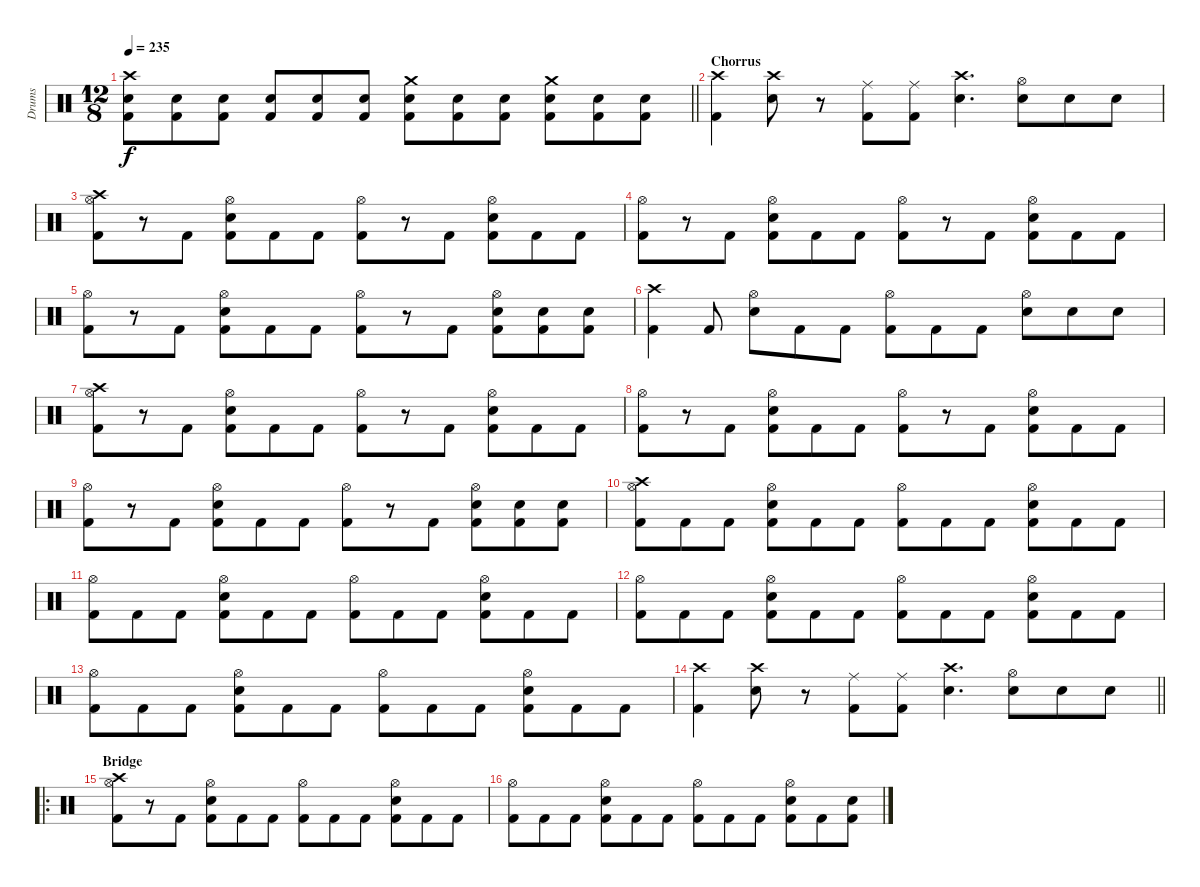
\track ("Drums" "Drums") {instrument percussion}
\staff {score}
\articulation defaults
\ts (12 8)
\tempo 235
\clef neutral
\barLineRight lightlight
\ks c
("Crash high (hit)" "Snare (hit) 2" "Kick (hit) 2").8{dy f} ("Snare (hit) 2" "Kick (hit) 2").8 ("Snare (hit) 2" "Kick (hit) 2").8 ("Snare (hit) 2" "Kick (hit) 2").8 ("Snare (hit) 2" "Kick (hit) 2").8 ("Snare (hit) 2" "Kick (hit) 2").8 ("Crash medium (hit)" "Snare (hit) 2" "Kick (hit) 2").8 ("Snare (hit) 2" "Kick (hit) 2").8 ("Snare (hit) 2" "Kick (hit) 2").8 ("Crash medium (hit)" "Snare (hit) 2" "Kick (hit) 2").8 ("Snare (hit) 2" "Kick (hit) 2").8 ("Snare (hit) 2" "Kick (hit) 2").8 |
\section ("" "Chorrus")
("Crash high (hit)" "Kick (hit) 2").4 ("Crash high (hit)" "Snare (hit) 2").8 r.8 ("Ride (middle)" "Kick (hit) 2").8 ("Ride (middle)" "Kick (hit) 2").8 ("Crash high (hit)" "Snare (hit) 2").4{d} ("Hi-Hat (open)" "Snare (hit) 2").8 "Snare (hit) 2".8 "Snare (hit) 2".8 |
("Crash high (hit)" "Hi-Hat (open)" "Kick (hit) 2").8 r.8 "Kick (hit) 2".8 ("Hi-Hat (open)" "Snare (hit) 2" "Kick (hit) 2").8 "Kick (hit) 2".8 "Kick (hit) 2".8 ("Hi-Hat (open)" "Kick (hit) 2").8 r.8 "Kick (hit) 2".8 ("Hi-Hat (open)" "Snare (hit) 2" "Kick (hit) 2").8 "Kick (hit) 2".8 "Kick (hit) 2".8 |
("Hi-Hat (open)" "Kick (hit) 2").8 r.8 "Kick (hit) 2".8 ("Hi-Hat (open)" "Snare (hit) 2" "Kick (hit) 2").8 "Kick (hit) 2".8 "Kick (hit) 2".8 ("Hi-Hat (open)" "Kick (hit) 2").8 r.8 "Kick (hit) 2".8 ("Hi-Hat (open)" "Snare (hit) 2" "Kick (hit) 2").8 "Kick (hit) 2".8 "Kick (hit) 2".8 |
("Hi-Hat (open)" "Kick (hit) 2").8 r.8 "Kick (hit) 2".8 ("Hi-Hat (open)" "Snare (hit) 2" "Kick (hit) 2").8 "Kick (hit) 2".8 "Kick (hit) 2".8 ("Hi-Hat (open)" "Kick (hit) 2").8 r.8 "Kick (hit) 2".8 ("Hi-Hat (open)" "Snare (hit) 2" "Kick (hit) 2").8 ("Snare (hit) 2" "Kick (hit) 2").8 ("Snare (hit) 2" "Kick (hit) 2").8 |
("Crash high (hit)" "Kick (hit) 2").4 "Kick (hit) 2".8 ("Hi-Hat (open)" "Snare (hit) 2").8 "Kick (hit) 2".8 "Kick (hit) 2".8 ("Hi-Hat (open)" "Kick (hit) 2").8 "Kick (hit) 2".8 "Kick (hit) 2".8 ("Hi-Hat (open)" "Snare (hit) 2").8 "Snare (hit) 2".8 "Snare (hit) 2".8 |
("Crash high (hit)" "Hi-Hat (open)" "Kick (hit) 2").8 r.8 "Kick (hit) 2".8 ("Hi-Hat (open)" "Snare (hit) 2" "Kick (hit) 2").8 "Kick (hit) 2".8 "Kick (hit) 2".8 ("Hi-Hat (open)" "Kick (hit) 2").8 r.8 "Kick (hit) 2".8 ("Hi-Hat (open)" "Snare (hit) 2" "Kick (hit) 2").8 "Kick (hit) 2".8 "Kick (hit) 2".8 |
("Hi-Hat (open)" "Kick (hit) 2").8 r.8 "Kick (hit) 2".8 ("Hi-Hat (open)" "Snare (hit) 2" "Kick (hit) 2").8 "Kick (hit) 2".8 "Kick (hit) 2".8 ("Hi-Hat (open)" "Kick (hit) 2").8 r.8 "Kick (hit) 2".8 ("Hi-Hat (open)" "Snare (hit) 2" "Kick (hit) 2").8 "Kick (hit) 2".8 "Kick (hit) 2".8 |
("Hi-Hat (open)" "Kick (hit) 2").8 r.8 "Kick (hit) 2".8 ("Hi-Hat (open)" "Snare (hit) 2" "Kick (hit) 2").8 "Kick (hit) 2".8 "Kick (hit) 2".8 ("Hi-Hat (open)" "Kick (hit) 2").8 r.8 "Kick (hit) 2".8 ("Hi-Hat (open)" "Snare (hit) 2" "Kick (hit) 2").8 ("Snare (hit) 2" "Kick (hit) 2").8 ("Snare (hit) 2" "Kick (hit) 2").8 |
("Crash high (hit)" "Hi-Hat (open)" "Kick (hit) 2").8 "Kick (hit) 2".8 "Kick (hit) 2".8 ("Hi-Hat (open)" "Snare (hit) 2" "Kick (hit) 2").8 "Kick (hit) 2".8 "Kick (hit) 2".8 ("Hi-Hat (open)" "Kick (hit) 2").8 "Kick (hit) 2".8 "Kick (hit) 2".8 ("Hi-Hat (open)" "Snare (hit) 2" "Kick (hit) 2").8 "Kick (hit) 2".8 "Kick (hit) 2".8 |
("Hi-Hat (open)" "Kick (hit) 2").8 "Kick (hit) 2".8 "Kick (hit) 2".8 ("Hi-Hat (open)" "Snare (hit) 2" "Kick (hit) 2").8 "Kick (hit) 2".8 "Kick (hit) 2".8 ("Hi-Hat (open)" "Kick (hit) 2").8 "Kick (hit) 2".8 "Kick (hit) 2".8 ("Hi-Hat (open)" "Snare (hit) 2" "Kick (hit) 2").8 "Kick (hit) 2".8 "Kick (hit) 2".8 |
("Hi-Hat (open)" "Kick (hit) 2").8 "Kick (hit) 2".8 "Kick (hit) 2".8 ("Hi-Hat (open)" "Snare (hit) 2" "Kick (hit) 2").8 "Kick (hit) 2".8 "Kick (hit) 2".8 ("Hi-Hat (open)" "Kick (hit) 2").8 "Kick (hit) 2".8 "Kick (hit) 2".8 ("Hi-Hat (open)" "Snare (hit) 2" "Kick (hit) 2").8 "Kick (hit) 2".8 "Kick (hit) 2".8 |
("Hi-Hat (open)" "Kick (hit) 2").8 "Kick (hit) 2".8 "Kick (hit) 2".8 ("Hi-Hat (open)" "Snare (hit) 2" "Kick (hit) 2").8 "Kick (hit) 2".8 "Kick (hit) 2".8 ("Hi-Hat (open)" "Kick (hit) 2").8 "Kick (hit) 2".8 "Kick (hit) 2".8 ("Hi-Hat (open)" "Snare (hit) 2" "Kick (hit) 2").8 "Kick (hit) 2".8 "Kick (hit) 2".8 |
\barLineRight lightlight
("Crash high (hit)" "Kick (hit) 2").4 ("Crash high (hit)" "Snare (hit) 2").8 r.8 ("Ride (middle)" "Kick (hit) 2").8 ("Ride (middle)" "Kick (hit) 2").8 ("Crash high (hit)" "Snare (hit) 2").4{d} ("Hi-Hat (open)" "Snare (hit) 2").8 "Snare (hit) 2".8 "Snare (hit) 2".8 |
\ro
\section ("" "Bridge")
("Crash high (hit)" "Hi-Hat (open)" "Kick (hit) 2").8 r.8 "Kick (hit) 2".8 ("Hi-Hat (open)" "Snare (hit) 2" "Kick (hit) 2").8 "Kick (hit) 2".8 "Kick (hit) 2".8 ("Hi-Hat (open)" "Kick (hit) 2").8 "Kick (hit) 2".8 "Kick (hit) 2".8 ("Hi-Hat (open)" "Snare (hit) 2" "Kick (hit) 2").8 "Kick (hit) 2".8 "Kick (hit) 2".8 |
("Hi-Hat (open)" "Kick (hit) 2").8 "Kick (hit) 2".8 "Kick (hit) 2".8 ("Hi-Hat (open)" "Snare (hit) 2" "Kick (hit) 2").8 "Kick (hit) 2".8 "Kick (hit) 2".8 ("Hi-Hat (open)" "Kick (hit) 2").8 "Kick (hit) 2".8 "Kick (hit) 2".8 ("Hi-Hat (open)" "Snare (hit) 2" "Kick (hit) 2").8 "Kick (hit) 2".8 ("Snare (hit) 2" "Kick (hit) 2").8
